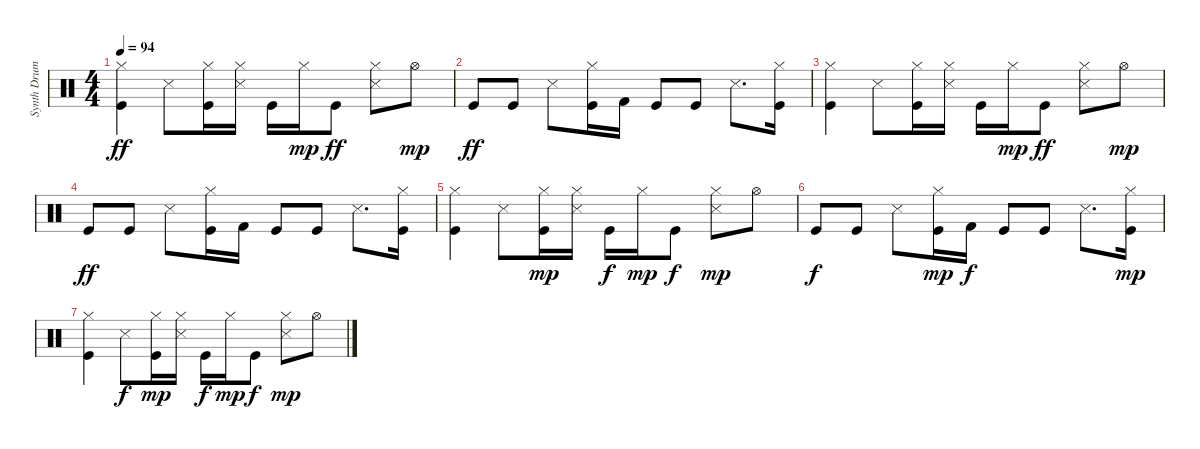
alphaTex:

\track ("Synth Drums" "Synth Drum") {instrument percussion}
\staff {score}
\articulation defaults
\ts (4 4)
\tempo 94
\clef neutral
\ks c
("Hi-Hat (closed)" "Kick (hit)").4{dy ff volume 11} "Snare (side stick) 3".8{volume 8} ("Hi-Hat (closed)" "Kick (hit)").16{volume 7} ("Hi-Hat (closed)" "Snare (side stick) 3").16{volume 10} "Kick (hit)".16{volume 10} "Hi-Hat (closed)".16{dy mp volume 10} "Kick (hit)".8{dy ff volume 7} ("Hi-Hat (closed)" "Snare (side stick) 3").8{volume 10} "Hi-Hat (open)".8{dy mp volume 10} |
"Kick (hit)".8{dy ff volume 9} "Kick (hit)".8{volume 9} "Snare (side stick) 3".8{volume 6} ("Hi-Hat (closed)" "Kick (hit)").16{volume 6} "Kick (hit) 2".16{volume 9} "Kick (hit)".8{volume 6} "Kick (hit)".8{volume 8} "Snare (side stick) 3".8{d volume 8} ("Hi-Hat (closed)" "Kick (hit)").16{volume 6} |
("Hi-Hat (closed)" "Kick (hit)").4{volume 8} "Snare (side stick) 3".8{volume 7} ("Hi-Hat (closed)" "Kick (hit)").16{volume 5} ("Hi-Hat (closed)" "Snare (side stick) 3").16 "Kick (hit)".16{volume 5} "Hi-Hat (closed)".16{dy mp volume 7} "Kick (hit)".8{dy ff volume 7} ("Hi-Hat (closed)" "Snare (side stick) 3").8{volume 5} "Hi-Hat (open)".8{dy mp volume 6} |
"Kick (hit)".8{dy ff volume 6} "Kick (hit)".8{volume 6} "Snare (side stick) 3".8{volume 6} ("Hi-Hat (closed)" "Kick (hit)").16{volume 6} "Kick (hit) 2".16{volume 6} "Kick (hit)".8{volume 4} "Kick (hit)".8{volume 4} "Snare (side stick) 3".8{d volume 4} ("Hi-Hat (closed)" "Kick (hit)").16{volume 5} |
("Hi-Hat (closed)" "Kick (hit)").4{volume 3} "Snare (side stick) 3".8{volume 4} ("Hi-Hat (closed)" "Kick (hit)").16{dy mp volume 4} ("Hi-Hat (closed)" "Snare (side stick) 3").16{volume 4} "Kick (hit)".16{dy f volume 4} "Hi-Hat (closed)".16{dy mp volume 3} "Kick (hit)".8{dy f volume 3} ("Hi-Hat (closed)" "Snare (side stick) 3").8{dy mp volume 4} "Hi-Hat (open)".8{volume 2} |
"Kick (hit)".8{dy f volume 3} "Kick (hit)".8{volume 3} "Snare (side stick) 3".8{volume 3} ("Hi-Hat (closed)" "Kick (hit)").16{dy mp volume 3} "Kick (hit) 2".16{dy f volume 2} "Kick (hit)".8{volume 2} "Kick (hit)".8{volume 2} "Snare (side stick) 3".8{d volume 1} ("Hi-Hat (closed)" "Kick (hit)").16{dy mp volume 2} |
("Hi-Hat (closed)" "Kick (hit)").4{volume 2} "Snare (side stick) 3".8{dy f volume 1} ("Hi-Hat (closed)" "Kick (hit)").16{dy mp volume 1} ("Hi-Hat (closed)" "Snare (side stick) 3").16{volume 1} "Kick (hit)".16{dy f volume 1} "Hi-Hat (closed)".16{dy mp volume 1} "Kick (hit)".8{dy f} ("Hi-Hat (closed)" "Snare (side stick) 3").8{dy mp volume 0} "Hi-Hat (open)".8{volume 0}
